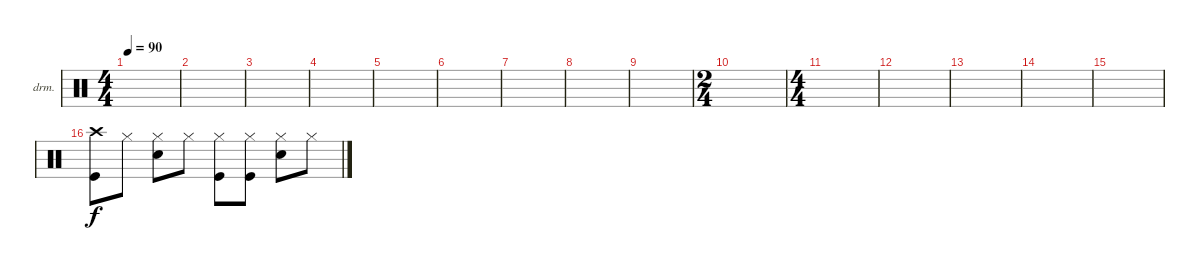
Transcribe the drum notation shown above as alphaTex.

\defaultSystemsLayout 4
\bracketExtendMode groupsimilarinstruments
\useSystemSignSeparator
\firstSystemTrackNameOrientation horizontal
\otherSystemsTrackNameOrientation horizontal
\chordDiagramsInScore
\track ("Drumkit" "drm.") {instrument percussion}
\staff {score}
\articulation defaults
\ts (4 4)
\tempo 90
\clef neutral
\ks c
|
|
|
|
|
|
|
|
|
\ts (2 4)
\beaming (8 2 2)
|
\ts (4 4)
\beaming (8 2 2 2 2)
|
|
|
|
|
("Crash high (hit)" "Kick (hit)").8 "Hi-Hat (closed)".8 ("Hi-Hat (closed)" "Snare (hit) 2").8 "Hi-Hat (closed)".8 ("Hi-Hat (closed)" "Kick (hit)").8 ("Hi-Hat (closed)" "Kick (hit)").8 ("Hi-Hat (closed)" "Snare (hit) 2").8 "Hi-Hat (closed)".8
